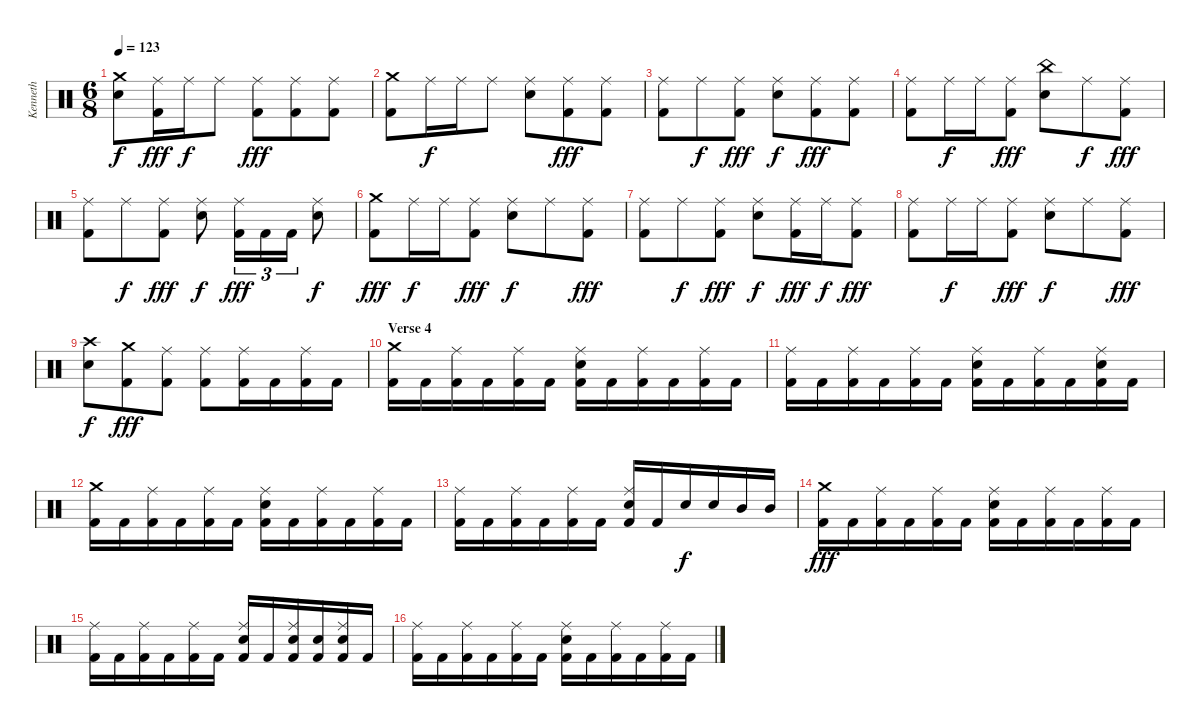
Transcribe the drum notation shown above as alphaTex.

\track ("Kenneth" "Kenneth") {instrument percussion}
\staff {score}
\articulation defaults
\ts (6 8)
\tempo 123
\clef neutral
\ks c
("Crash medium (hit)" "Snare (hit) 2").8{dy f} ("Ride (middle)" "Kick (hit) 2").16{dy fff} "Ride (middle)".16{dy f} "Ride (middle)".8 ("Ride (middle)" "Kick (hit) 2").8{dy fff} ("Ride (middle)" "Kick (hit) 2").8 ("Ride (middle)" "Kick (hit) 2").8 |
("Crash medium (hit)" "Kick (hit) 2").8 "Ride (middle)".16{dy f} "Ride (middle)".16 "Ride (middle)".8 ("Ride (middle)" "Snare (hit) 2").8 ("Ride (middle)" "Kick (hit) 2").8{dy fff} ("Ride (middle)" "Kick (hit) 2").8 |
("Ride (middle)" "Kick (hit) 2").8 "Ride (middle)".8{dy f} ("Ride (middle)" "Kick (hit) 2").8{dy fff} ("Ride (middle)" "Snare (hit) 2").8{dy f} ("Ride (middle)" "Kick (hit) 2").8{dy fff} ("Ride (middle)" "Kick (hit) 2").8 |
("Ride (middle)" "Kick (hit) 2").8 "Ride (middle)".16{dy f} "Ride (middle)".16 ("Ride (middle)" "Kick (hit) 2").8{dy fff} ("China (hit)" "Snare (hit) 2").8 "Ride (middle)".8{dy f} ("Ride (middle)" "Kick (hit) 2").8{dy fff} |
("Ride (middle)" "Kick (hit) 2").8 "Ride (middle)".8{dy f} ("Ride (middle)" "Kick (hit) 2").8{dy fff} ("Ride (middle)" "Snare (hit) 2").8{dy f} ("Ride (middle)" "Kick (hit) 2").16{tu (3 2) dy fff} "Kick (hit) 2".16{tu (3 2)} "Kick (hit) 2".16{tu (3 2)} ("Ride (middle)" "Snare (hit) 2").8{dy f} |
("Crash medium (hit)" "Kick (hit) 2").8{dy fff} "Ride (middle)".16{dy f} "Ride (middle)".16 ("Ride (middle)" "Kick (hit) 2").8{dy fff} ("Ride (middle)" "Snare (hit) 2").8{dy f} "Ride (middle)".8 ("Ride (middle)" "Kick (hit) 2").8{dy fff} |
("Ride (middle)" "Kick (hit) 2").8 "Ride (middle)".8{dy f} ("Ride (middle)" "Kick (hit) 2").8{dy fff} ("Ride (middle)" "Snare (hit) 2").8{dy f} ("Ride (middle)" "Kick (hit) 2").16{dy fff} "Ride (middle)".16{dy f} ("Ride (middle)" "Kick (hit) 2").8{dy fff} |
("Ride (middle)" "Kick (hit) 2").8 "Ride (middle)".16{dy f} "Ride (middle)".16 ("Ride (middle)" "Kick (hit) 2").8{dy fff} ("Ride (middle)" "Snare (hit) 2").8{dy f} "Ride (middle)".8 ("Ride (middle)" "Kick (hit) 2").8{dy fff} |
("Crash high (hit)" "Snare (hit) 2").8{dy f} ("Crash medium (hit)" "Kick (hit) 2").8{dy fff} ("Ride (middle)" "Kick (hit) 2").8 ("Ride (middle)" "Kick (hit) 2").8 ("Ride (middle)" "Kick (hit) 2").16 "Kick (hit) 2".16 ("Ride (middle)" "Kick (hit) 2").16 "Kick (hit) 2".16 |
\section ("" "Verse 4 ")
("Crash medium (hit)" "Kick (hit) 2").16 "Kick (hit) 2".16 ("Ride (middle)" "Kick (hit) 2").16 "Kick (hit) 2".16 ("Ride (middle)" "Kick (hit) 2").16 "Kick (hit) 2".16 ("Ride (middle)" "Snare (hit) 2" "Kick (hit) 2").16 "Kick (hit) 2".16 ("Ride (middle)" "Kick (hit) 2").16 "Kick (hit) 2".16 ("Ride (middle)" "Kick (hit) 2").16 "Kick (hit) 2".16 |
("Ride (middle)" "Kick (hit) 2").16 "Kick (hit) 2".16 ("Ride (middle)" "Kick (hit) 2").16 "Kick (hit) 2".16 ("Ride (middle)" "Kick (hit) 2").16 "Kick (hit) 2".16 ("Ride (middle)" "Snare (hit) 2" "Kick (hit) 2").16 "Kick (hit) 2".16 ("Ride (middle)" "Kick (hit) 2").16 "Kick (hit) 2".16 ("Ride (middle)" "Snare (hit) 2" "Kick (hit) 2").16 "Kick (hit) 2".16 |
("Crash medium (hit)" "Kick (hit) 2").16 "Kick (hit) 2".16 ("Ride (middle)" "Kick (hit) 2").16 "Kick (hit) 2".16 ("Ride (middle)" "Kick (hit) 2").16 "Kick (hit) 2".16 ("Ride (middle)" "Snare (hit) 2" "Kick (hit) 2").16 "Kick (hit) 2".16 ("Ride (middle)" "Kick (hit) 2").16 "Kick (hit) 2".16 ("Ride (middle)" "Kick (hit) 2").16 "Kick (hit) 2".16 |
("Ride (middle)" "Kick (hit) 2").16 "Kick (hit) 2".16 ("Ride (middle)" "Kick (hit) 2").16 "Kick (hit) 2".16 ("Ride (middle)" "Kick (hit) 2").16 "Kick (hit) 2".16 ("Ride (middle)" "Snare (hit) 2" "Kick (hit) 2").16 "Kick (hit) 2".16 "Snare (hit) 2".16{dy f} "Snare (hit) 2".16 "Mid Tom (hit)".16 "Mid Tom (hit)".16 |
("Crash medium (hit)" "Kick (hit) 2").16{dy fff} "Kick (hit) 2".16 ("Ride (middle)" "Kick (hit) 2").16 "Kick (hit) 2".16 ("Ride (middle)" "Kick (hit) 2").16 "Kick (hit) 2".16 ("Ride (middle)" "Snare (hit) 2" "Kick (hit) 2").16 "Kick (hit) 2".16 ("Ride (middle)" "Kick (hit) 2").16 "Kick (hit) 2".16 ("Ride (middle)" "Kick (hit) 2").16 "Kick (hit) 2".16 |
("Ride (middle)" "Kick (hit) 2").16 "Kick (hit) 2".16 ("Ride (middle)" "Kick (hit) 2").16 "Kick (hit) 2".16 ("Ride (middle)" "Kick (hit) 2").16 "Kick (hit) 2".16 ("Ride (middle)" "Snare (hit) 2" "Kick (hit) 2").16 "Kick (hit) 2".16 ("Ride (middle)" "Snare (hit) 2" "Kick (hit) 2").16 ("Snare (hit) 2" "Kick (hit) 2").16 ("Ride (middle)" "Snare (hit) 2" "Kick (hit) 2").16 "Kick (hit) 2".16 |
("Ride (middle)" "Kick (hit) 2").16 "Kick (hit) 2".16 ("Ride (middle)" "Kick (hit) 2").16 "Kick (hit) 2".16 ("Ride (middle)" "Kick (hit) 2").16 "Kick (hit) 2".16 ("Ride (middle)" "Snare (hit) 2" "Kick (hit) 2").16 "Kick (hit) 2".16 ("Ride (middle)" "Kick (hit) 2").16 "Kick (hit) 2".16 ("Ride (middle)" "Kick (hit) 2").16 "Kick (hit) 2".16
